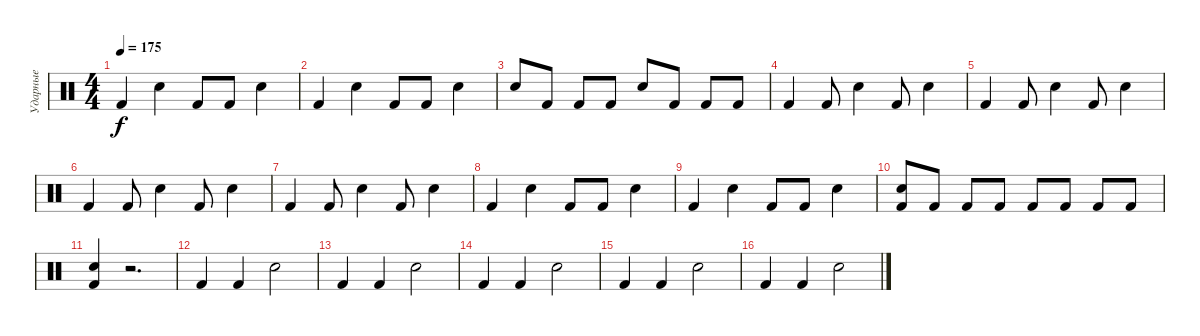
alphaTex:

\track ("Ударные" "Ударные") {instrument percussion}
\staff {score}
\articulation defaults
\ts (4 4)
\tempo 175
\clef neutral
\ks c "Kick (hit) 2".4{dy f} "Electric Snare (hit)".4 "Kick (hit) 2".8 "Kick (hit) 2".8 "Electric Snare (hit)".4
|
"Kick (hit) 2".4 "Electric Snare (hit)".4 "Kick (hit) 2".8 "Kick (hit) 2".8 "Electric Snare (hit)".4 |
"Electric Snare (hit)".8 "Kick (hit) 2".8 "Kick (hit) 2".8 "Kick (hit) 2".8 "Electric Snare (hit)".8 "Kick (hit) 2".8 "Kick (hit) 2".8 "Kick (hit) 2".8 |
"Kick (hit) 2".4 "Kick (hit) 2".8 "Electric Snare (hit)".4 "Kick (hit) 2".8 "Electric Snare (hit)".4 |
"Kick (hit) 2".4 "Kick (hit) 2".8 "Electric Snare (hit)".4 "Kick (hit) 2".8 "Electric Snare (hit)".4 |
"Kick (hit) 2".4 "Kick (hit) 2".8 "Electric Snare (hit)".4 "Kick (hit) 2".8 "Electric Snare (hit)".4 |
"Kick (hit) 2".4 "Kick (hit) 2".8 "Electric Snare (hit)".4 "Kick (hit) 2".8 "Electric Snare (hit)".4 |
"Kick (hit) 2".4 "Electric Snare (hit)".4 "Kick (hit) 2".8 "Kick (hit) 2".8 "Electric Snare (hit)".4 |
"Kick (hit) 2".4 "Electric Snare (hit)".4 "Kick (hit) 2".8 "Kick (hit) 2".8 "Electric Snare (hit)".4 |
("Electric Snare (hit)" "Kick (hit) 2").8 "Kick (hit) 2".8 "Kick (hit) 2".8 "Kick (hit) 2".8 "Kick (hit) 2".8 "Kick (hit) 2".8 "Kick (hit) 2".8 "Kick (hit) 2".8 |
("Electric Snare (hit)" "Kick (hit) 2").4 r.2{d} |
"Kick (hit) 2".4 "Kick (hit) 2".4 "Electric Snare (hit)".2 |
"Kick (hit) 2".4 "Kick (hit) 2".4 "Electric Snare (hit)".2 |
"Kick (hit) 2".4 "Kick (hit) 2".4 "Electric Snare (hit)".2 |
"Kick (hit) 2".4 "Kick (hit) 2".4 "Electric Snare (hit)".2 |
"Kick (hit) 2".4 "Kick (hit) 2".4 "Electric Snare (hit)".2
